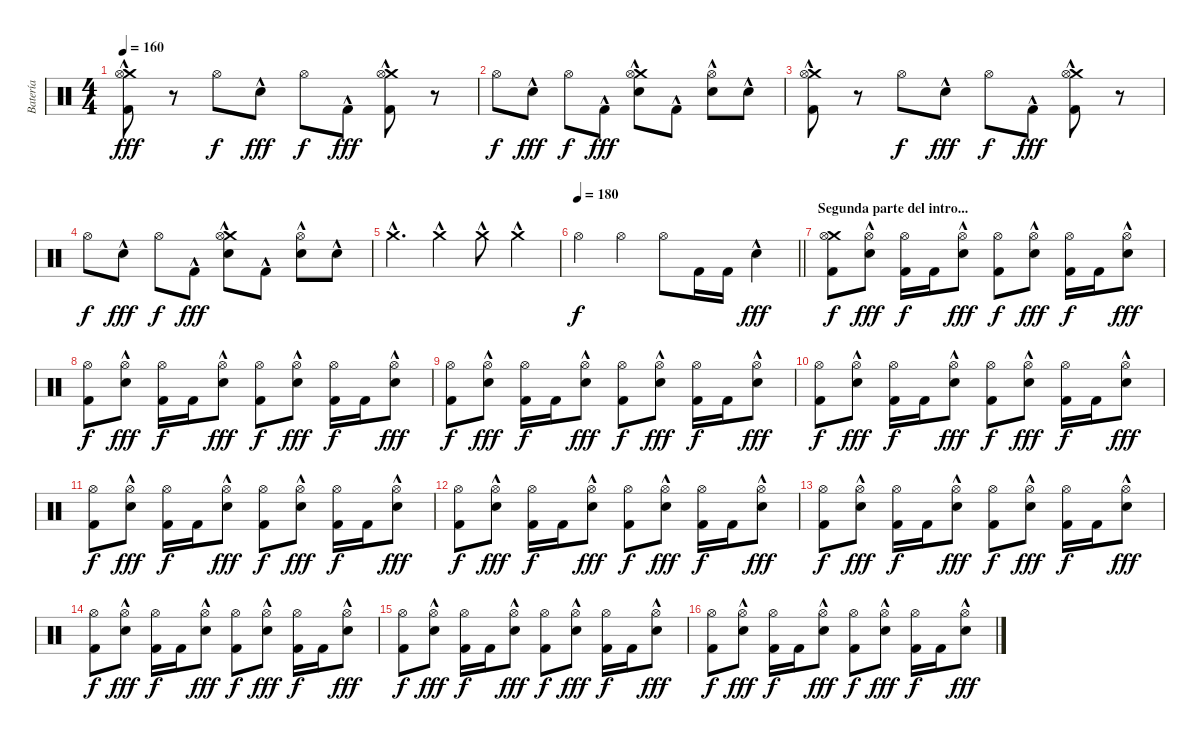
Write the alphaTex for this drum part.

\track ("Batería" "Batería") {instrument percussion}
\staff {score}
\articulation defaults
\ts (4 4)
\tempo 160
\clef neutral
\ks c
("Crash medium (hit)"{hac} "Hi-Hat (open)" "Kick (hit) 2"{hac}).8{dy fff} r.8 "Hi-Hat (open)".8{dy f} "Snare (hit) 2"{hac}.8{dy fff} "Hi-Hat (open)".8{dy f} "Kick (hit) 2"{hac}.8{dy fff} ("Crash medium (hit)"{hac} "Hi-Hat (open)" "Kick (hit) 2"{hac}).8 r.8 |
"Hi-Hat (open)".8{dy f} "Snare (hit) 2"{hac}.8{dy fff} "Hi-Hat (open)".8{dy f} "Kick (hit) 2"{hac}.8{dy fff} ("Crash medium (hit)"{hac} "Snare (hit) 2"{hac} "Hi-Hat (open)").8 "Kick (hit) 2"{hac}.8 ("Snare (hit) 2"{hac} "Hi-Hat (open)").8 "Snare (hit) 2"{hac}.8 |
("Crash medium (hit)"{hac} "Hi-Hat (open)" "Kick (hit) 2"{hac}).8 r.8 "Hi-Hat (open)".8{dy f} "Snare (hit) 2"{hac}.8{dy fff} "Hi-Hat (open)".8{dy f} "Kick (hit) 2"{hac}.8{dy fff} ("Crash medium (hit)"{hac} "Hi-Hat (open)" "Kick (hit) 2"{hac}).8 r.8 |
"Hi-Hat (open)".8{dy f} "Snare (hit) 2"{hac}.8{dy fff} "Hi-Hat (open)".8{dy f} "Kick (hit) 2"{hac}.8{dy fff} ("Crash medium (hit)"{hac} "Snare (hit) 2"{hac} "Hi-Hat (open)").8 "Kick (hit) 2"{hac}.8 ("Snare (hit) 2"{hac} "Hi-Hat (open)").8 "Snare (hit) 2"{hac}.8 |
"Crash medium (hit)"{hac}.4{d} "Crash medium (hit)"{hac}.4 "Crash medium (hit)"{hac}.8 "Crash medium (hit)"{hac}.4 |
\tempo 180
\barLineRight lightlight "Hi-Hat (open)".4{dy f} "Hi-Hat (open)".4 "Hi-Hat (open)".8 "Kick (hit) 2".16 "Kick (hit) 2".16 "Snare (hit) 2"{hac}.4{dy fff}
|
\section ("" "Segunda parte del intro...")
("Crash medium (hit)" "Hi-Hat (open)" "Kick (hit) 2").8{dy f} ("Snare (hit) 2"{hac} "Hi-Hat (open)").8{dy fff} ("Hi-Hat (open)" "Kick (hit) 2").16{dy f} "Kick (hit) 2".16 ("Snare (hit) 2"{hac} "Hi-Hat (open)").8{dy fff} ("Hi-Hat (open)" "Kick (hit) 2").8{dy f} ("Snare (hit) 2"{hac} "Hi-Hat (open)").8{dy fff} ("Hi-Hat (open)" "Kick (hit) 2").16{dy f} "Kick (hit) 2".16 ("Snare (hit) 2"{hac} "Hi-Hat (open)").8{dy fff} |
("Hi-Hat (open)" "Kick (hit) 2").8{dy f} ("Snare (hit) 2"{hac} "Hi-Hat (open)").8{dy fff} ("Hi-Hat (open)" "Kick (hit) 2").16{dy f} "Kick (hit) 2".16 ("Snare (hit) 2"{hac} "Hi-Hat (open)").8{dy fff} ("Hi-Hat (open)" "Kick (hit) 2").8{dy f} ("Snare (hit) 2"{hac} "Hi-Hat (open)").8{dy fff} ("Hi-Hat (open)" "Kick (hit) 2").16{dy f} "Kick (hit) 2".16 ("Snare (hit) 2"{hac} "Hi-Hat (open)").8{dy fff} |
("Hi-Hat (open)" "Kick (hit) 2").8{dy f} ("Snare (hit) 2"{hac} "Hi-Hat (open)").8{dy fff} ("Hi-Hat (open)" "Kick (hit) 2").16{dy f} "Kick (hit) 2".16 ("Snare (hit) 2"{hac} "Hi-Hat (open)").8{dy fff} ("Hi-Hat (open)" "Kick (hit) 2").8{dy f} ("Snare (hit) 2"{hac} "Hi-Hat (open)").8{dy fff} ("Hi-Hat (open)" "Kick (hit) 2").16{dy f} "Kick (hit) 2".16 ("Snare (hit) 2"{hac} "Hi-Hat (open)").8{dy fff} |
("Hi-Hat (open)" "Kick (hit) 2").8{dy f} ("Snare (hit) 2"{hac} "Hi-Hat (open)").8{dy fff} ("Hi-Hat (open)" "Kick (hit) 2").16{dy f} "Kick (hit) 2".16 ("Snare (hit) 2"{hac} "Hi-Hat (open)").8{dy fff} ("Hi-Hat (open)" "Kick (hit) 2").8{dy f} ("Snare (hit) 2"{hac} "Hi-Hat (open)").8{dy fff} ("Hi-Hat (open)" "Kick (hit) 2").16{dy f} "Kick (hit) 2".16 ("Snare (hit) 2"{hac} "Hi-Hat (open)").8{dy fff} |
("Hi-Hat (open)" "Kick (hit) 2").8{dy f} ("Snare (hit) 2"{hac} "Hi-Hat (open)").8{dy fff} ("Hi-Hat (open)" "Kick (hit) 2").16{dy f} "Kick (hit) 2".16 ("Snare (hit) 2"{hac} "Hi-Hat (open)").8{dy fff} ("Hi-Hat (open)" "Kick (hit) 2").8{dy f} ("Snare (hit) 2"{hac} "Hi-Hat (open)").8{dy fff} ("Hi-Hat (open)" "Kick (hit) 2").16{dy f} "Kick (hit) 2".16 ("Snare (hit) 2"{hac} "Hi-Hat (open)").8{dy fff} |
("Hi-Hat (open)" "Kick (hit) 2").8{dy f} ("Snare (hit) 2"{hac} "Hi-Hat (open)").8{dy fff} ("Hi-Hat (open)" "Kick (hit) 2").16{dy f} "Kick (hit) 2".16 ("Snare (hit) 2"{hac} "Hi-Hat (open)").8{dy fff} ("Hi-Hat (open)" "Kick (hit) 2").8{dy f} ("Snare (hit) 2"{hac} "Hi-Hat (open)").8{dy fff} ("Hi-Hat (open)" "Kick (hit) 2").16{dy f} "Kick (hit) 2".16 ("Snare (hit) 2"{hac} "Hi-Hat (open)").8{dy fff} |
("Hi-Hat (open)" "Kick (hit) 2").8{dy f} ("Snare (hit) 2"{hac} "Hi-Hat (open)").8{dy fff} ("Hi-Hat (open)" "Kick (hit) 2").16{dy f} "Kick (hit) 2".16 ("Snare (hit) 2"{hac} "Hi-Hat (open)").8{dy fff} ("Hi-Hat (open)" "Kick (hit) 2").8{dy f} ("Snare (hit) 2"{hac} "Hi-Hat (open)").8{dy fff} ("Hi-Hat (open)" "Kick (hit) 2").16{dy f} "Kick (hit) 2".16 ("Snare (hit) 2"{hac} "Hi-Hat (open)").8{dy fff} |
("Hi-Hat (open)" "Kick (hit) 2").8{dy f} ("Snare (hit) 2"{hac} "Hi-Hat (open)").8{dy fff} ("Hi-Hat (open)" "Kick (hit) 2").16{dy f} "Kick (hit) 2".16 ("Snare (hit) 2"{hac} "Hi-Hat (open)").8{dy fff} ("Hi-Hat (open)" "Kick (hit) 2").8{dy f} ("Snare (hit) 2"{hac} "Hi-Hat (open)").8{dy fff} ("Hi-Hat (open)" "Kick (hit) 2").16{dy f} "Kick (hit) 2".16 ("Snare (hit) 2"{hac} "Hi-Hat (open)").8{dy fff} |
("Hi-Hat (open)" "Kick (hit) 2").8{dy f} ("Snare (hit) 2"{hac} "Hi-Hat (open)").8{dy fff} ("Hi-Hat (open)" "Kick (hit) 2").16{dy f} "Kick (hit) 2".16 ("Snare (hit) 2"{hac} "Hi-Hat (open)").8{dy fff} ("Hi-Hat (open)" "Kick (hit) 2").8{dy f} ("Snare (hit) 2"{hac} "Hi-Hat (open)").8{dy fff} ("Hi-Hat (open)" "Kick (hit) 2").16{dy f} "Kick (hit) 2".16 ("Snare (hit) 2"{hac} "Hi-Hat (open)").8{dy fff} |
("Hi-Hat (open)" "Kick (hit) 2").8{dy f} ("Snare (hit) 2"{hac} "Hi-Hat (open)").8{dy fff} ("Hi-Hat (open)" "Kick (hit) 2").16{dy f} "Kick (hit) 2".16 ("Snare (hit) 2"{hac} "Hi-Hat (open)").8{dy fff} ("Hi-Hat (open)" "Kick (hit) 2").8{dy f} ("Snare (hit) 2"{hac} "Hi-Hat (open)").8{dy fff} ("Hi-Hat (open)" "Kick (hit) 2").16{dy f} "Kick (hit) 2".16 ("Snare (hit) 2"{hac} "Hi-Hat (open)").8{dy fff}
